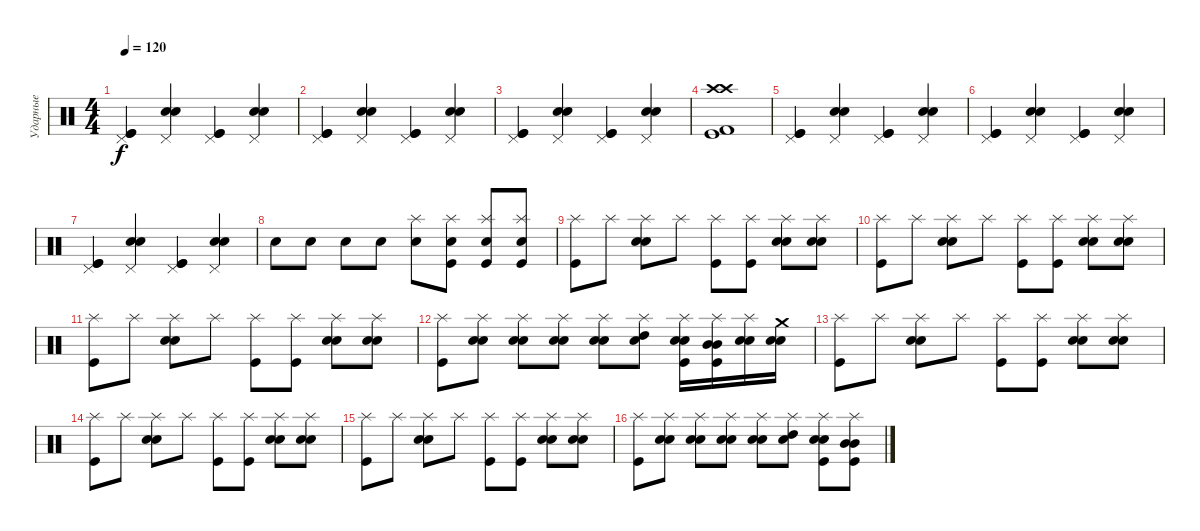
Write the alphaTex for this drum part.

\track ("Ударные" "Ударные") {instrument percussion}
\staff {score}
\articulation defaults
\ts (4 4)
\tempo 120
\clef neutral
\ks c
("Pedal Hi-Hat (hit)" "Kick (hit)" "Kick (hit)").4{dy f} ("Pedal Hi-Hat (hit)" "Snare (hit) 2" "Snare (hit) 2").4 ("Pedal Hi-Hat (hit)" "Kick (hit)" "Kick (hit)").4 ("Pedal Hi-Hat (hit)" "Snare (hit) 2" "Snare (hit) 2").4 |
("Pedal Hi-Hat (hit)" "Kick (hit)" "Kick (hit)").4 ("Pedal Hi-Hat (hit)" "Snare (hit) 2" "Snare (hit) 2").4 ("Pedal Hi-Hat (hit)" "Kick (hit)" "Kick (hit)").4 ("Pedal Hi-Hat (hit)" "Snare (hit) 2" "Snare (hit) 2").4 |
("Pedal Hi-Hat (hit)" "Kick (hit)" "Kick (hit)").4 ("Pedal Hi-Hat (hit)" "Snare (hit) 2" "Snare (hit) 2").4 ("Pedal Hi-Hat (hit)" "Kick (hit)" "Kick (hit)").4 ("Pedal Hi-Hat (hit)" "Snare (hit) 2" "Snare (hit) 2").4 |
("Crash high (hit)" "Crash high (hit)" "Kick (hit)" "Kick (hit) 2").1 |
("Pedal Hi-Hat (hit)" "Kick (hit)" "Kick (hit)").4 ("Pedal Hi-Hat (hit)" "Snare (hit) 2" "Snare (hit) 2").4 ("Pedal Hi-Hat (hit)" "Kick (hit)" "Kick (hit)").4 ("Pedal Hi-Hat (hit)" "Snare (hit) 2" "Snare (hit) 2").4 |
("Pedal Hi-Hat (hit)" "Kick (hit)" "Kick (hit)").4 ("Pedal Hi-Hat (hit)" "Snare (hit) 2" "Snare (hit) 2").4 ("Pedal Hi-Hat (hit)" "Kick (hit)" "Kick (hit)").4 ("Pedal Hi-Hat (hit)" "Snare (hit) 2" "Snare (hit) 2").4 |
("Pedal Hi-Hat (hit)" "Kick (hit)" "Kick (hit)").4 ("Pedal Hi-Hat (hit)" "Snare (hit) 2" "Snare (hit) 2").4 ("Pedal Hi-Hat (hit)" "Kick (hit)" "Kick (hit)").4 ("Pedal Hi-Hat (hit)" "Snare (hit) 2" "Snare (hit) 2").4 |
"Snare (hit) 2".8 "Snare (hit) 2".8 "Snare (hit) 2".8 "Snare (hit) 2".8 ("Splash (hit)" "Electric Snare (hit)").8 ("Splash (hit)" "Electric Snare (hit)" "Kick (hit)").8 ("Splash (hit)" "Electric Snare (hit)" "Kick (hit)").8 ("Splash (hit)" "Electric Snare (hit)" "Kick (hit)").8 |
("Splash (hit)" "Kick (hit)").8 "Splash (hit)".8 ("Splash (hit)" "Snare (hit) 2" "Snare (hit) 2").8 "Splash (hit)".8 ("Splash (hit)" "Kick (hit)").8 ("Splash (hit)" "Kick (hit)").8 ("Splash (hit)" "Snare (hit) 2" "Snare (hit) 2").8 ("Splash (hit)" "Snare (hit) 2" "Snare (hit) 2").8 |
("Splash (hit)" "Kick (hit)").8 "Splash (hit)".8 ("Splash (hit)" "Snare (hit) 2" "Snare (hit) 2").8 "Splash (hit)".8 ("Splash (hit)" "Kick (hit)").8 ("Splash (hit)" "Kick (hit)").8 ("Splash (hit)" "Snare (hit) 2" "Snare (hit) 2").8 ("Splash (hit)" "Snare (hit) 2" "Snare (hit) 2").8 |
("Splash (hit)" "Kick (hit)").8 "Splash (hit)".8 ("Splash (hit)" "Snare (hit) 2" "Snare (hit) 2").8 "Splash (hit)".8 ("Splash (hit)" "Kick (hit)").8 ("Splash (hit)" "Kick (hit)").8 ("Splash (hit)" "Snare (hit) 2" "Snare (hit) 2").8 ("Splash (hit)" "Snare (hit) 2" "Snare (hit) 2").8 |
("Splash (hit)" "Kick (hit)").8 ("Splash (hit)" "Electric Snare (hit)" "Electric Snare (hit)").8 ("Splash (hit)" "Snare (hit) 2" "Snare (hit) 2").8 ("Splash (hit)" "Snare (hit) 2" "Snare (hit) 2").8 ("Splash (hit)" "Electric Snare (hit)" "Electric Snare (hit)").8 ("Splash (hit)" "Snare (hit) 2" "High Tom (hit)").8 ("Splash (hit)" "Snare (hit) 2" "Snare (hit) 2" "Kick (hit)").16 ("Splash (hit)" "Mid Tom (hit)" "Mid Tom (hit)" "Kick (hit)").16 ("Splash (hit)" "Snare (hit) 2" "Snare (hit) 2").16 ("Crash medium (hit)" "Snare (hit) 2" "Snare (hit) 2").16 |
("Splash (hit)" "Kick (hit)").8 "Splash (hit)".8 ("Splash (hit)" "Snare (hit) 2" "Snare (hit) 2").8 "Splash (hit)".8 ("Splash (hit)" "Kick (hit)").8 ("Splash (hit)" "Kick (hit)").8 ("Splash (hit)" "Snare (hit) 2" "Snare (hit) 2").8 ("Splash (hit)" "Snare (hit) 2" "Snare (hit) 2").8 |
("Splash (hit)" "Kick (hit)").8 "Splash (hit)".8 ("Splash (hit)" "Snare (hit) 2" "Snare (hit) 2").8 "Splash (hit)".8 ("Splash (hit)" "Kick (hit)").8 ("Splash (hit)" "Kick (hit)").8 ("Splash (hit)" "Snare (hit) 2" "Snare (hit) 2").8 ("Splash (hit)" "Snare (hit) 2" "Snare (hit) 2").8 |
("Splash (hit)" "Kick (hit)").8 "Splash (hit)".8 ("Splash (hit)" "Snare (hit) 2" "Snare (hit) 2").8 "Splash (hit)".8 ("Splash (hit)" "Kick (hit)").8 ("Splash (hit)" "Kick (hit)").8 ("Splash (hit)" "Snare (hit) 2" "Snare (hit) 2").8 ("Splash (hit)" "Snare (hit) 2" "Snare (hit) 2").8 |
("Splash (hit)" "Kick (hit)").8 ("Splash (hit)" "Electric Snare (hit)" "Electric Snare (hit)").8 ("Splash (hit)" "Snare (hit) 2" "Snare (hit) 2").8 ("Splash (hit)" "Snare (hit) 2" "Snare (hit) 2").8 ("Splash (hit)" "Electric Snare (hit)" "Electric Snare (hit)").8 ("Splash (hit)" "Snare (hit) 2" "High Tom (hit)").8 ("Splash (hit)" "Snare (hit) 2" "Snare (hit) 2" "Kick (hit)").8 ("Splash (hit)" "Mid Tom (hit)" "Mid Tom (hit)" "Kick (hit)").8
